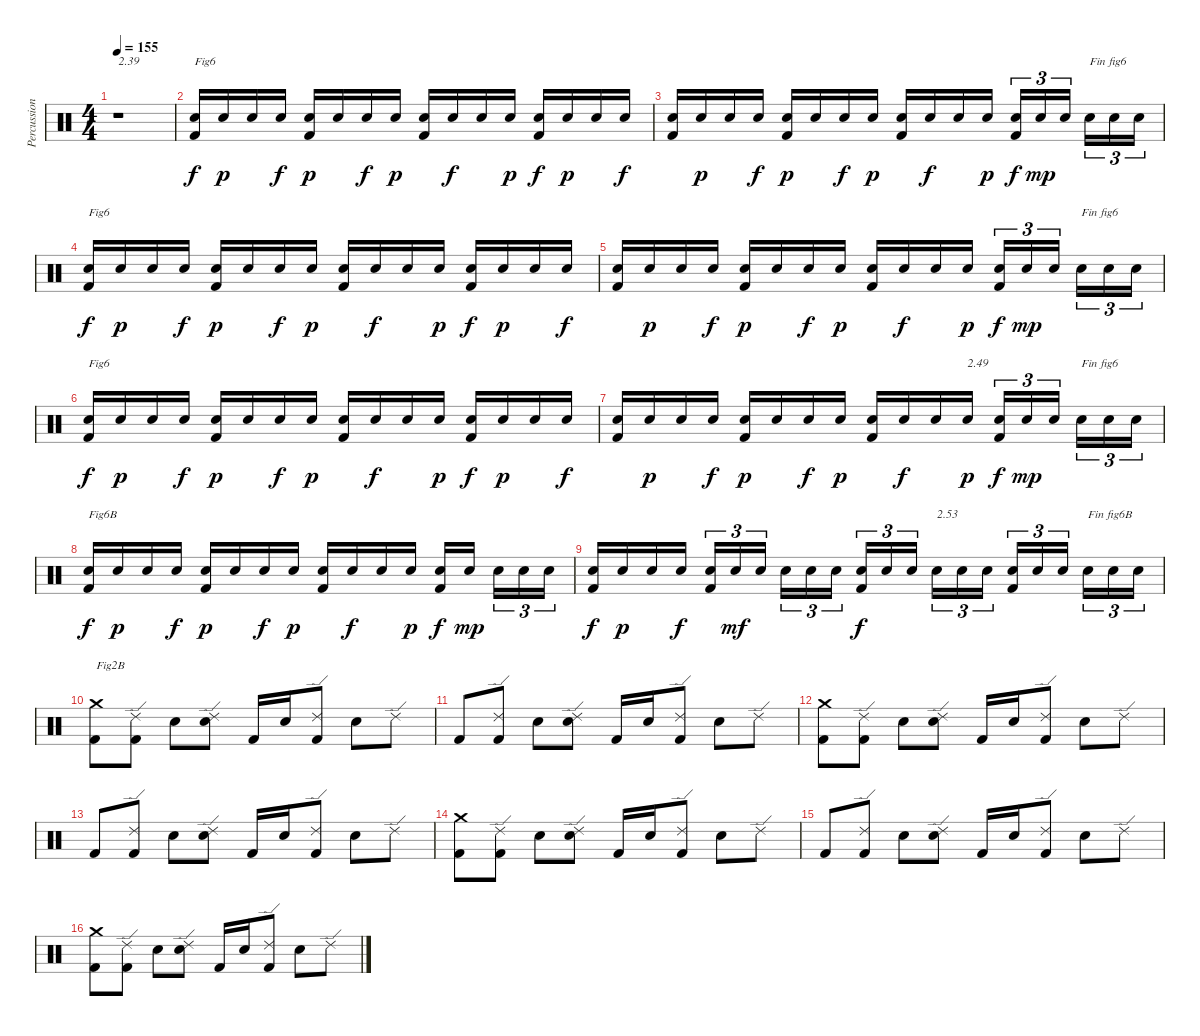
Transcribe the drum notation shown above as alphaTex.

\track ("Percussions" "Percussion") {instrument percussion}
\staff {score}
\articulation defaults
\ts (4 4)
\tempo 155
\clef neutral
\ks c
r.1{txt "2.39" dy f} |
("Kick (hit) 2" "Electric Snare (hit)").16{txt "Fig6"} "Electric Snare (hit)".16{dy p} "Electric Snare (hit)".16 "Electric Snare (hit)".16{dy f} ("Kick (hit) 2" "Electric Snare (hit)").16{dy p} "Electric Snare (hit)".16 "Electric Snare (hit)".16{dy f} "Electric Snare (hit)".16{dy p} ("Kick (hit) 2" "Electric Snare (hit)").16 "Electric Snare (hit)".16{dy f} "Electric Snare (hit)".16 "Electric Snare (hit)".16{dy p} ("Kick (hit) 2" "Electric Snare (hit)").16{dy f} "Electric Snare (hit)".16{dy p} "Electric Snare (hit)".16 "Electric Snare (hit)".16{dy f} |
("Kick (hit) 2" "Electric Snare (hit)").16 "Electric Snare (hit)".16{dy p} "Electric Snare (hit)".16 "Electric Snare (hit)".16{dy f} ("Kick (hit) 2" "Electric Snare (hit)").16{dy p} "Electric Snare (hit)".16 "Electric Snare (hit)".16{dy f} "Electric Snare (hit)".16{dy p} ("Kick (hit) 2" "Electric Snare (hit)").16 "Electric Snare (hit)".16{dy f} "Electric Snare (hit)".16 "Electric Snare (hit)".16{dy p} ("Kick (hit) 2" "Electric Snare (hit)").16{tu (3 2) dy f} "Electric Snare (hit)".16{tu (3 2) dy mp} "Electric Snare (hit)".16{tu (3 2)} "Electric Snare (hit)".16{tu (3 2) txt "Fin fig6"} "Electric Snare (hit)".16{tu (3 2)} "Electric Snare (hit)".16{tu (3 2)} |
("Kick (hit) 2" "Electric Snare (hit)").16{txt "Fig6" dy f} "Electric Snare (hit)".16{dy p} "Electric Snare (hit)".16 "Electric Snare (hit)".16{dy f} ("Kick (hit) 2" "Electric Snare (hit)").16{dy p} "Electric Snare (hit)".16 "Electric Snare (hit)".16{dy f} "Electric Snare (hit)".16{dy p} ("Kick (hit) 2" "Electric Snare (hit)").16 "Electric Snare (hit)".16{dy f} "Electric Snare (hit)".16 "Electric Snare (hit)".16{dy p} ("Kick (hit) 2" "Electric Snare (hit)").16{dy f} "Electric Snare (hit)".16{dy p} "Electric Snare (hit)".16 "Electric Snare (hit)".16{dy f} |
("Kick (hit) 2" "Electric Snare (hit)").16 "Electric Snare (hit)".16{dy p} "Electric Snare (hit)".16 "Electric Snare (hit)".16{dy f} ("Kick (hit) 2" "Electric Snare (hit)").16{dy p} "Electric Snare (hit)".16 "Electric Snare (hit)".16{dy f} "Electric Snare (hit)".16{dy p} ("Kick (hit) 2" "Electric Snare (hit)").16 "Electric Snare (hit)".16{dy f} "Electric Snare (hit)".16 "Electric Snare (hit)".16{dy p} ("Kick (hit) 2" "Electric Snare (hit)").16{tu (3 2) dy f} "Electric Snare (hit)".16{tu (3 2) dy mp} "Electric Snare (hit)".16{tu (3 2)} "Electric Snare (hit)".16{tu (3 2) txt "Fin fig6"} "Electric Snare (hit)".16{tu (3 2)} "Electric Snare (hit)".16{tu (3 2)} |
("Kick (hit) 2" "Electric Snare (hit)").16{txt "Fig6" dy f} "Electric Snare (hit)".16{dy p} "Electric Snare (hit)".16 "Electric Snare (hit)".16{dy f} ("Kick (hit) 2" "Electric Snare (hit)").16{dy p} "Electric Snare (hit)".16 "Electric Snare (hit)".16{dy f} "Electric Snare (hit)".16{dy p} ("Kick (hit) 2" "Electric Snare (hit)").16 "Electric Snare (hit)".16{dy f} "Electric Snare (hit)".16 "Electric Snare (hit)".16{dy p} ("Kick (hit) 2" "Electric Snare (hit)").16{dy f} "Electric Snare (hit)".16{dy p} "Electric Snare (hit)".16 "Electric Snare (hit)".16{dy f} |
("Kick (hit) 2" "Electric Snare (hit)").16 "Electric Snare (hit)".16{dy p} "Electric Snare (hit)".16 "Electric Snare (hit)".16{dy f} ("Kick (hit) 2" "Electric Snare (hit)").16{dy p} "Electric Snare (hit)".16 "Electric Snare (hit)".16{dy f} "Electric Snare (hit)".16{dy p} ("Kick (hit) 2" "Electric Snare (hit)").16 "Electric Snare (hit)".16{dy f} "Electric Snare (hit)".16 "Electric Snare (hit)".16{txt "2.49" dy p} ("Kick (hit) 2" "Electric Snare (hit)").16{tu (3 2) dy f} "Electric Snare (hit)".16{tu (3 2) dy mp} "Electric Snare (hit)".16{tu (3 2)} "Electric Snare (hit)".16{tu (3 2) txt "Fin fig6"} "Electric Snare (hit)".16{tu (3 2)} "Electric Snare (hit)".16{tu (3 2)} |
("Kick (hit) 2" "Electric Snare (hit)").16{txt "Fig6B" dy f} "Electric Snare (hit)".16{dy p} "Electric Snare (hit)".16 "Electric Snare (hit)".16{dy f} ("Kick (hit) 2" "Electric Snare (hit)").16{dy p} "Electric Snare (hit)".16 "Electric Snare (hit)".16{dy f} "Electric Snare (hit)".16{dy p} ("Kick (hit) 2" "Electric Snare (hit)").16 "Electric Snare (hit)".16{dy f} "Electric Snare (hit)".16 "Electric Snare (hit)".16{dy p} ("Kick (hit) 2" "Electric Snare (hit)").16{dy f} "Electric Snare (hit)".16{dy mp} "Electric Snare (hit)".16{tu (3 2)} "Electric Snare (hit)".16{tu (3 2)} "Electric Snare (hit)".16{tu (3 2)} |
("Kick (hit) 2" "Electric Snare (hit)").16{dy f} "Electric Snare (hit)".16{dy p} "Electric Snare (hit)".16 "Electric Snare (hit)".16{dy f} ("Kick (hit) 2" "Electric Snare (hit)").16{tu (3 2)} "Electric Snare (hit)".16{tu (3 2) dy mf} "Electric Snare (hit)".16{tu (3 2)} "Electric Snare (hit)".16{tu (3 2)} "Electric Snare (hit)".16{tu (3 2)} "Electric Snare (hit)".16{tu (3 2)} ("Kick (hit) 2" "Electric Snare (hit)").16{tu (3 2) dy f} "Electric Snare (hit)".16{tu (3 2)} "Electric Snare (hit)".16{tu (3 2)} "Electric Snare (hit)".16{tu (3 2) txt "2.53"} "Electric Snare (hit)".16{tu (3 2)} "Electric Snare (hit)".16{tu (3 2)} ("Kick (hit) 2" "Electric Snare (hit)").16{tu (3 2)} "Electric Snare (hit)".16{tu (3 2)} "Electric Snare (hit)".16{tu (3 2)} "Electric Snare (hit)".16{tu (3 2) txt "Fin fig6B"} "Electric Snare (hit)".16{tu (3 2)} "Electric Snare (hit)".16{tu (3 2)} |
("Kick (hit) 2" "Crash medium (hit)").8{txt "Fig2B"} ("Kick (hit) 2" "Ride (edge) 2").8 "Electric Snare (hit)".8 ("Electric Snare (hit)" "Ride (edge) 2").8 "Kick (hit) 2".16 "Electric Snare (hit)".16 ("Kick (hit) 2" "Ride (edge) 2").8 "Electric Snare (hit)".8 "Ride (edge) 2".8 |
"Kick (hit) 2".8 ("Kick (hit) 2" "Ride (edge) 2").8 "Electric Snare (hit)".8 ("Electric Snare (hit)" "Ride (edge) 2").8 "Kick (hit) 2".16 "Electric Snare (hit)".16 ("Kick (hit) 2" "Ride (edge) 2").8 "Electric Snare (hit)".8 "Ride (edge) 2".8 |
("Kick (hit) 2" "Crash medium (hit)").8 ("Kick (hit) 2" "Ride (edge) 2").8 "Electric Snare (hit)".8 ("Electric Snare (hit)" "Ride (edge) 2").8 "Kick (hit) 2".16 "Electric Snare (hit)".16 ("Kick (hit) 2" "Ride (edge) 2").8 "Electric Snare (hit)".8 "Ride (edge) 2".8 |
"Kick (hit) 2".8 ("Kick (hit) 2" "Ride (edge) 2").8 "Electric Snare (hit)".8 ("Electric Snare (hit)" "Ride (edge) 2").8 "Kick (hit) 2".16 "Electric Snare (hit)".16 ("Kick (hit) 2" "Ride (edge) 2").8 "Electric Snare (hit)".8 "Ride (edge) 2".8 |
("Kick (hit) 2" "Crash medium (hit)").8 ("Kick (hit) 2" "Ride (edge) 2").8 "Electric Snare (hit)".8 ("Electric Snare (hit)" "Ride (edge) 2").8 "Kick (hit) 2".16 "Electric Snare (hit)".16 ("Kick (hit) 2" "Ride (edge) 2").8 "Electric Snare (hit)".8 "Ride (edge) 2".8 |
"Kick (hit) 2".8 ("Kick (hit) 2" "Ride (edge) 2").8 "Electric Snare (hit)".8 ("Electric Snare (hit)" "Ride (edge) 2").8 "Kick (hit) 2".16 "Electric Snare (hit)".16 ("Kick (hit) 2" "Ride (edge) 2").8 "Electric Snare (hit)".8 "Ride (edge) 2".8 |
("Kick (hit) 2" "Crash medium (hit)").8 ("Kick (hit) 2" "Ride (edge) 2").8 "Electric Snare (hit)".8 ("Electric Snare (hit)" "Ride (edge) 2").8 "Kick (hit) 2".16 "Electric Snare (hit)".16 ("Kick (hit) 2" "Ride (edge) 2").8 "Electric Snare (hit)".8 "Ride (edge) 2".8
